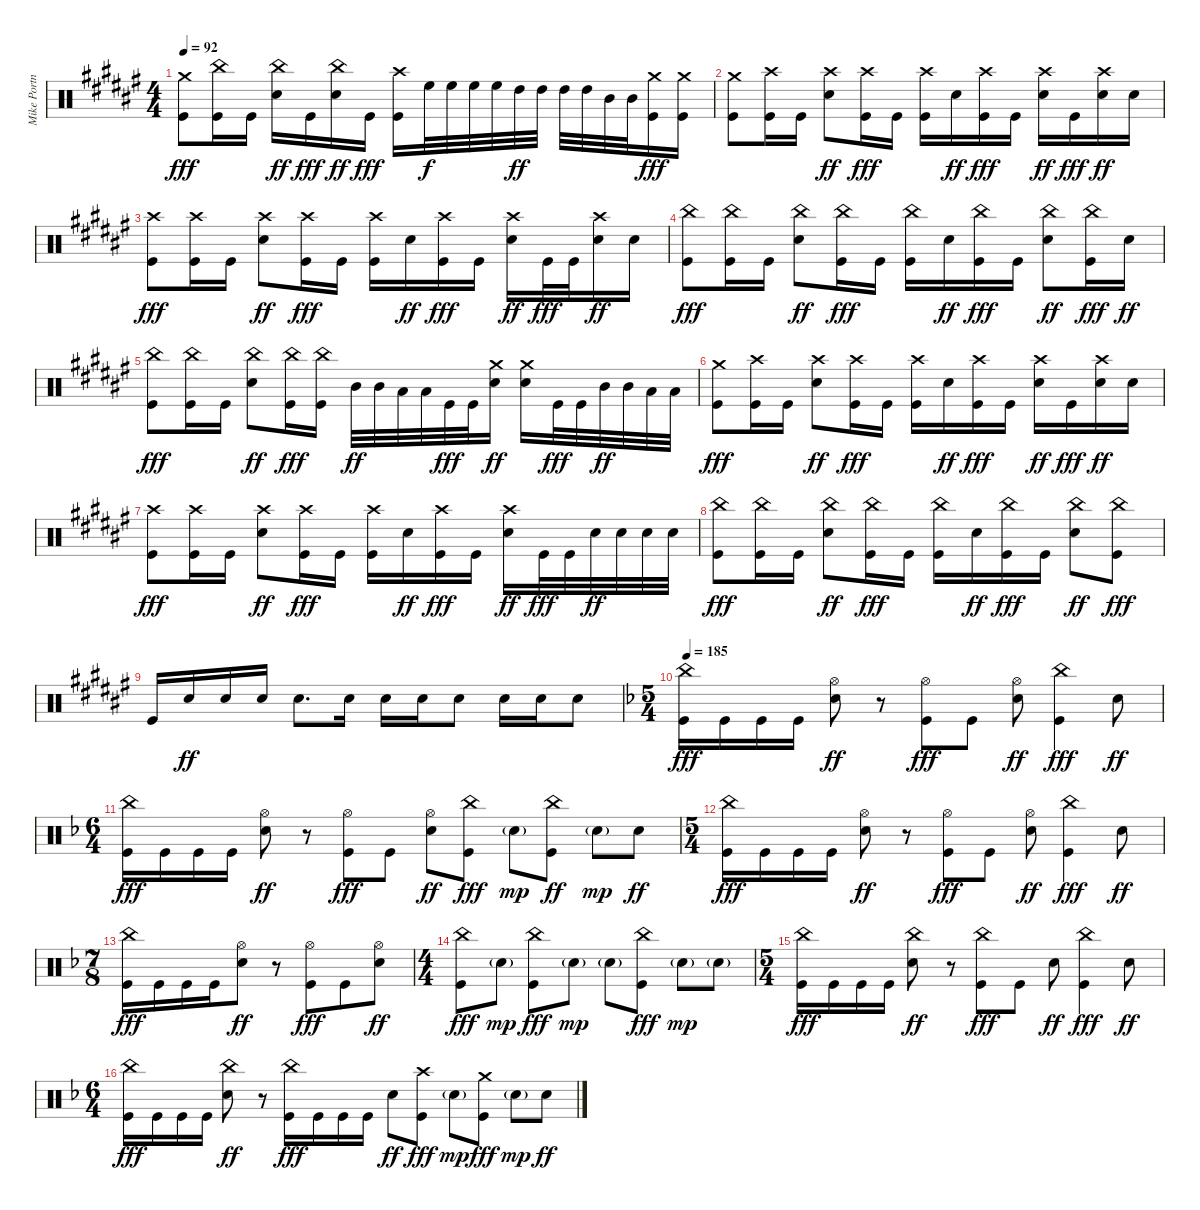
\track ("Mike Portnoy" "Mike Portn") {instrument percussion}
\staff {score}
\articulation defaults
\ts (4 4)
\tempo 92
\clef neutral
\ks f#
("Crash medium (hit)" "Kick (hit)").8{dy fff} ("China (hit)" "Kick (hit)").16 "Kick (hit)".16 ("China (hit)" "Electric Snare (hit)").16{dy ff} "Kick (hit)".16{dy fff} ("China (hit)" "Electric Snare (hit)").16{dy ff} "Kick (hit)".16{dy fff} ("Crash high (hit)" "Kick (hit)").16 "High Floor Tom (hit)".32{dy f} "High Floor Tom (hit)".32 "High Floor Tom (hit)".32 "High Floor Tom (hit)".32 "High Tom (hit)".32{dy ff} "High Tom (hit)".32 "High Tom (hit)".32 "High Tom (hit)".32 "Mid Tom (hit)".32 "Mid Tom (hit)".32 ("Crash medium (hit)" "Kick (hit)").16{dy fff} ("Crash medium (hit)" "Kick (hit)").16 |
("Crash medium (hit)" "Kick (hit)").8 ("Crash high (hit)" "Kick (hit)").16 "Kick (hit)".16 ("Crash high (hit)" "Electric Snare (hit)").8{dy ff} ("Crash high (hit)" "Kick (hit)").16{dy fff} "Kick (hit)".16 ("Crash high (hit)" "Kick (hit)").16 "Electric Snare (hit)".16{dy ff} ("Crash high (hit)" "Kick (hit)").16{dy fff} "Kick (hit)".16 ("Crash high (hit)" "Electric Snare (hit)").16{dy ff} "Kick (hit)".16{dy fff} ("Crash high (hit)" "Electric Snare (hit)").16{dy ff} "Electric Snare (hit)".16 |
("Crash high (hit)" "Kick (hit)").8{dy fff} ("Crash high (hit)" "Kick (hit)").16 "Kick (hit)".16 ("Crash high (hit)" "Electric Snare (hit)").8{dy ff} ("Crash high (hit)" "Kick (hit)").16{dy fff} "Kick (hit)".16 ("Crash high (hit)" "Kick (hit)").16 "Electric Snare (hit)".16{dy ff} ("Crash high (hit)" "Kick (hit)").16{dy fff} "Kick (hit)".16 ("Crash high (hit)" "Electric Snare (hit)").16{dy ff} "Kick (hit)".32{dy fff} "Kick (hit)".32 ("Crash high (hit)" "Electric Snare (hit)").16{dy ff} "Electric Snare (hit)".16 |
("China (hit)" "Kick (hit)").8{dy fff} ("China (hit)" "Kick (hit)").16 "Kick (hit)".16 ("China (hit)" "Electric Snare (hit)").8{dy ff} ("China (hit)" "Kick (hit)").16{dy fff} "Kick (hit)".16 ("China (hit)" "Kick (hit)").16 "Electric Snare (hit)".16{dy ff} ("China (hit)" "Kick (hit)").16{dy fff} "Kick (hit)".16 ("China (hit)" "Electric Snare (hit)").8{dy ff} ("China (hit)" "Kick (hit)").16{dy fff} "Electric Snare (hit)".16{dy ff} |
("China (hit)" "Kick (hit)").8{dy fff} ("China (hit)" "Kick (hit)").16 "Kick (hit)".16 ("China (hit)" "Electric Snare (hit)").8{dy ff} ("China (hit)" "Kick (hit)").16{dy fff} ("China (hit)" "Kick (hit)").16 "Mid Tom (hit)".32{dy ff} "Mid Tom (hit)".32 "Low Tom (hit)".32 "Low Tom (hit)".32 "Kick (hit)".32{dy fff} "Kick (hit)".32 ("Crash medium (hit)" "Electric Snare (hit)").16{dy ff} ("Crash medium (hit)" "Electric Snare (hit)").16 "Kick (hit)".32{dy fff} "Kick (hit)".32 "Mid Tom (hit)".32{dy ff} "Mid Tom (hit)".32 "Low Tom (hit)".32 "Low Tom (hit)".32 |
("Crash medium (hit)" "Kick (hit)").8{dy fff} ("Crash high (hit)" "Kick (hit)").16 "Kick (hit)".16 ("Crash high (hit)" "Electric Snare (hit)").8{dy ff} ("Crash high (hit)" "Kick (hit)").16{dy fff} "Kick (hit)".16 ("Crash high (hit)" "Kick (hit)").16 "Electric Snare (hit)".16{dy ff} ("Crash high (hit)" "Kick (hit)").16{dy fff} "Kick (hit)".16 ("Crash high (hit)" "Electric Snare (hit)").16{dy ff} "Kick (hit)".16{dy fff} ("Crash high (hit)" "Electric Snare (hit)").16{dy ff} "Electric Snare (hit)".16 |
("Crash high (hit)" "Kick (hit)").8{dy fff} ("Crash high (hit)" "Kick (hit)").16 "Kick (hit)".16 ("Crash high (hit)" "Electric Snare (hit)").8{dy ff} ("Crash high (hit)" "Kick (hit)").16{dy fff} "Kick (hit)".16 ("Crash high (hit)" "Kick (hit)").16 "Electric Snare (hit)".16{dy ff} ("Crash high (hit)" "Kick (hit)").16{dy fff} "Kick (hit)".16 ("Crash high (hit)" "Electric Snare (hit)").16{dy ff} "Kick (hit)".32{dy fff} "Kick (hit)".32 "Electric Snare (hit)".32{dy ff} "Electric Snare (hit)".32 "Electric Snare (hit)".32 "Electric Snare (hit)".32 |
("China (hit)" "Kick (hit)").8{dy fff} ("China (hit)" "Kick (hit)").16 "Kick (hit)".16 ("China (hit)" "Electric Snare (hit)").8{dy ff} ("China (hit)" "Kick (hit)").16{dy fff} "Kick (hit)".16 ("China (hit)" "Kick (hit)").16 "Electric Snare (hit)".16{dy ff} ("China (hit)" "Kick (hit)").16{dy fff} "Kick (hit)".16 ("China (hit)" "Electric Snare (hit)").8{dy ff} ("China (hit)" "Kick (hit)").8{dy fff} |
"Kick (hit)".16 "Electric Snare (hit)".16{dy ff} "Electric Snare (hit)".16 "Electric Snare (hit)".16 "Electric Snare (hit)".8{d} "Electric Snare (hit)".16 "Electric Snare (hit)".16 "Electric Snare (hit)".16 "Electric Snare (hit)".8 "Electric Snare (hit)".16 "Electric Snare (hit)".16 "Electric Snare (hit)".8 |
\ts (5 4)
\tempo 185
\ks f
("China (hit)" "Kick (hit)").16{dy fff} "Kick (hit)".16 "Kick (hit)".16 "Kick (hit)".16 ("Hi-Hat (open)" "Electric Snare (hit)").8{dy ff} r.8 ("Hi-Hat (open)" "Kick (hit)").8{dy fff} "Kick (hit)".8 ("Hi-Hat (open)" "Electric Snare (hit)").8{dy ff} ("China (hit)" "Kick (hit)").4{dy fff} "Electric Snare (hit)".8{dy ff} |
\ts (6 4)
("China (hit)" "Kick (hit)").16{dy fff} "Kick (hit)".16 "Kick (hit)".16 "Kick (hit)".16 ("Hi-Hat (open)" "Electric Snare (hit)").8{dy ff} r.8 ("Hi-Hat (open)" "Kick (hit)").8{dy fff} "Kick (hit)".8 ("Hi-Hat (open)" "Electric Snare (hit)").8{dy ff} ("China (hit)" "Kick (hit)").8{dy fff} "Electric Snare (hit)"{g}.8{dy mp} ("China (hit)" "Kick (hit)").8{dy ff} "Electric Snare (hit)"{g}.8{dy mp} "Electric Snare (hit)".8{dy ff} |
\ts (5 4)
("China (hit)" "Kick (hit)").16{dy fff} "Kick (hit)".16 "Kick (hit)".16 "Kick (hit)".16 ("Hi-Hat (open)" "Electric Snare (hit)").8{dy ff} r.8 ("Hi-Hat (open)" "Kick (hit)").8{dy fff} "Kick (hit)".8 ("Hi-Hat (open)" "Electric Snare (hit)").8{dy ff} ("China (hit)" "Kick (hit)").4{dy fff} "Electric Snare (hit)".8{dy ff} |
\ts (7 8)
("China (hit)" "Kick (hit)").16{dy fff} "Kick (hit)".16 "Kick (hit)".16 "Kick (hit)".16 ("Hi-Hat (open)" "Electric Snare (hit)").8{dy ff} r.8 ("Hi-Hat (open)" "Kick (hit)").8{dy fff} "Kick (hit)".8 ("Hi-Hat (open)" "Electric Snare (hit)").8{dy ff} |
\ts (4 4)
("China (hit)" "Kick (hit)").8{dy fff} "Electric Snare (hit)"{g}.8{dy mp} ("China (hit)" "Kick (hit)").8{dy fff} "Electric Snare (hit)"{g}.8{dy mp} "Electric Snare (hit)"{g}.8 ("China (hit)" "Kick (hit)").8{dy fff} "Electric Snare (hit)"{g}.8{dy mp} "Electric Snare (hit)"{g}.8 |
\ts (5 4)
("China (hit)" "Kick (hit)").16{dy fff} "Kick (hit)".16 "Kick (hit)".16 "Kick (hit)".16 ("China (hit)" "Electric Snare (hit)").8{dy ff} r.8 ("China (hit)" "Kick (hit)").8{dy fff} "Kick (hit)".8 "Electric Snare (hit)".8{dy ff} ("China (hit)" "Kick (hit)").4{dy fff} "Electric Snare (hit)".8{dy ff} |
\ts (6 4)
("China (hit)" "Kick (hit)").16{dy fff} "Kick (hit)".16 "Kick (hit)".16 "Kick (hit)".16 ("China (hit)" "Electric Snare (hit)").8{dy ff} r.8 ("China (hit)" "Kick (hit)").16{dy fff} "Kick (hit)".16 "Kick (hit)".16 "Kick (hit)".16 "Electric Snare (hit)".8{dy ff} ("Crash high (hit)" "Kick (hit)").8{dy fff} "Electric Snare (hit)"{g}.8{dy mp} ("Crash medium (hit)" "Kick (hit)").8{dy fff} "Electric Snare (hit)"{g}.8{dy mp} "Electric Snare (hit)".8{dy ff}
